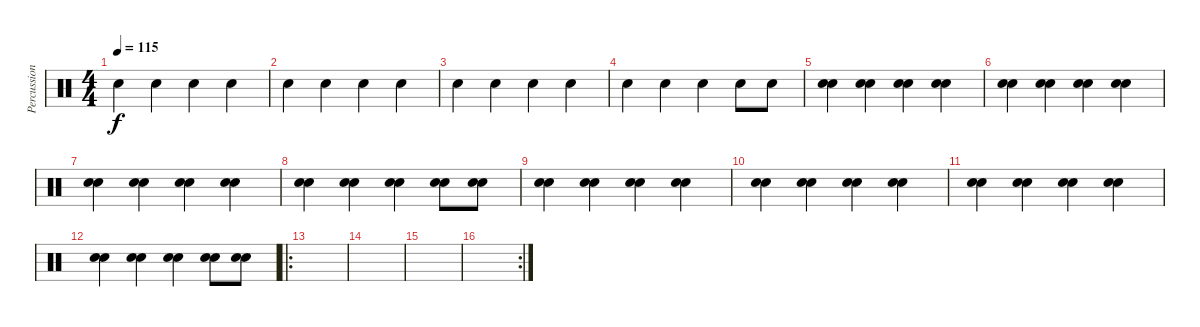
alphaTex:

\track ("Percussion" "Percussion") {instrument percussion}
\staff {score}
\articulation defaults
\ts (4 4)
\tempo 115
\clef neutral
\ks c "Electric Snare (hit)".4{dy f} "Electric Snare (hit)".4 "Electric Snare (hit)".4 "Electric Snare (hit)".4
|
"Electric Snare (hit)".4 "Electric Snare (hit)".4 "Electric Snare (hit)".4 "Electric Snare (hit)".4 |
"Electric Snare (hit)".4 "Electric Snare (hit)".4 "Electric Snare (hit)".4 "Electric Snare (hit)".4 |
"Electric Snare (hit)".4 "Electric Snare (hit)".4 "Electric Snare (hit)".4 "Electric Snare (hit)".8 "Electric Snare (hit)".8 |
("Electric Snare (hit)" "Electric Snare (hit)").4 ("Electric Snare (hit)" "Electric Snare (hit)").4 ("Electric Snare (hit)" "Electric Snare (hit)").4 ("Electric Snare (hit)" "Electric Snare (hit)").4 |
("Electric Snare (hit)" "Electric Snare (hit)").4 ("Electric Snare (hit)" "Electric Snare (hit)").4 ("Electric Snare (hit)" "Electric Snare (hit)").4 ("Electric Snare (hit)" "Electric Snare (hit)").4 |
("Electric Snare (hit)" "Electric Snare (hit)").4 ("Electric Snare (hit)" "Electric Snare (hit)").4 ("Electric Snare (hit)" "Electric Snare (hit)").4 ("Electric Snare (hit)" "Electric Snare (hit)").4 |
("Electric Snare (hit)" "Electric Snare (hit)").4 ("Electric Snare (hit)" "Electric Snare (hit)").4 ("Electric Snare (hit)" "Electric Snare (hit)").4 ("Electric Snare (hit)" "Electric Snare (hit)").8 ("Electric Snare (hit)" "Electric Snare (hit)").8 |
("Electric Snare (hit)" "Electric Snare (hit)").4 ("Electric Snare (hit)" "Electric Snare (hit)").4 ("Electric Snare (hit)" "Electric Snare (hit)").4 ("Electric Snare (hit)" "Electric Snare (hit)").4 |
("Electric Snare (hit)" "Electric Snare (hit)").4 ("Electric Snare (hit)" "Electric Snare (hit)").4 ("Electric Snare (hit)" "Electric Snare (hit)").4 ("Electric Snare (hit)" "Electric Snare (hit)").4 |
("Electric Snare (hit)" "Electric Snare (hit)").4 ("Electric Snare (hit)" "Electric Snare (hit)").4 ("Electric Snare (hit)" "Electric Snare (hit)").4 ("Electric Snare (hit)" "Electric Snare (hit)").4 |
("Electric Snare (hit)" "Electric Snare (hit)").4 ("Electric Snare (hit)" "Electric Snare (hit)").4 ("Electric Snare (hit)" "Electric Snare (hit)").4 ("Electric Snare (hit)" "Electric Snare (hit)").8 ("Electric Snare (hit)" "Electric Snare (hit)").8 |
\ro
|
|
|
\rc 2
